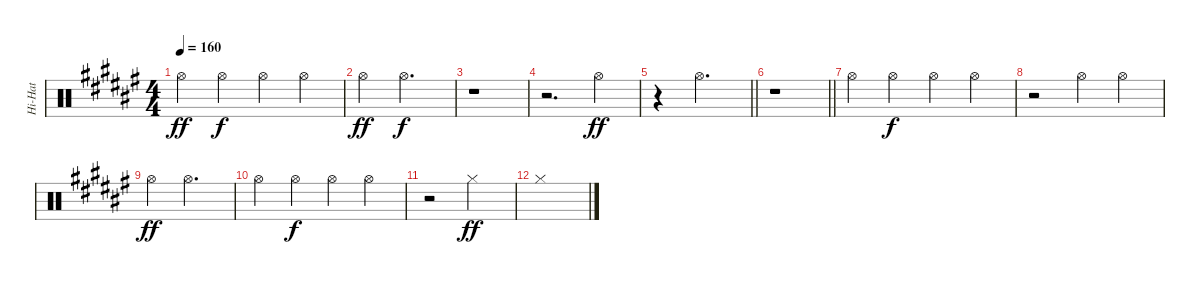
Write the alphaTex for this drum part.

\track ("Hi-Hat" "Hi-Hat") {instrument percussion}
\staff {score}
\articulation defaults
\ts (4 4)
\tempo 160
\clef neutral
\ks d#minor "Hi-Hat (open)".4{dy ff} "Hi-Hat (open)".4{dy f} "Hi-Hat (open)".4 "Hi-Hat (open)".4
|
"Hi-Hat (open)".4{dy ff} "Hi-Hat (open)".2{d dy f} |
r.1 |
r.2{d} "Hi-Hat (open)".4{dy ff} |
\barLineRight lightlight
r.4 "Hi-Hat (open)".2{d} |
\barLineRight lightlight
r.1 |
"Hi-Hat (open)".4 "Hi-Hat (open)".4{dy f} "Hi-Hat (open)".4 "Hi-Hat (open)".4 |
r.2 "Hi-Hat (open)".4 "Hi-Hat (open)".4 |
"Hi-Hat (open)".4{dy ff} "Hi-Hat (open)".2{d} |
"Hi-Hat (open)".4 "Hi-Hat (open)".4{dy f} "Hi-Hat (open)".4 "Hi-Hat (open)".4 |
r.2 "Hi-Hat (closed)".2{dy ff} |
"Hi-Hat (closed)".1
